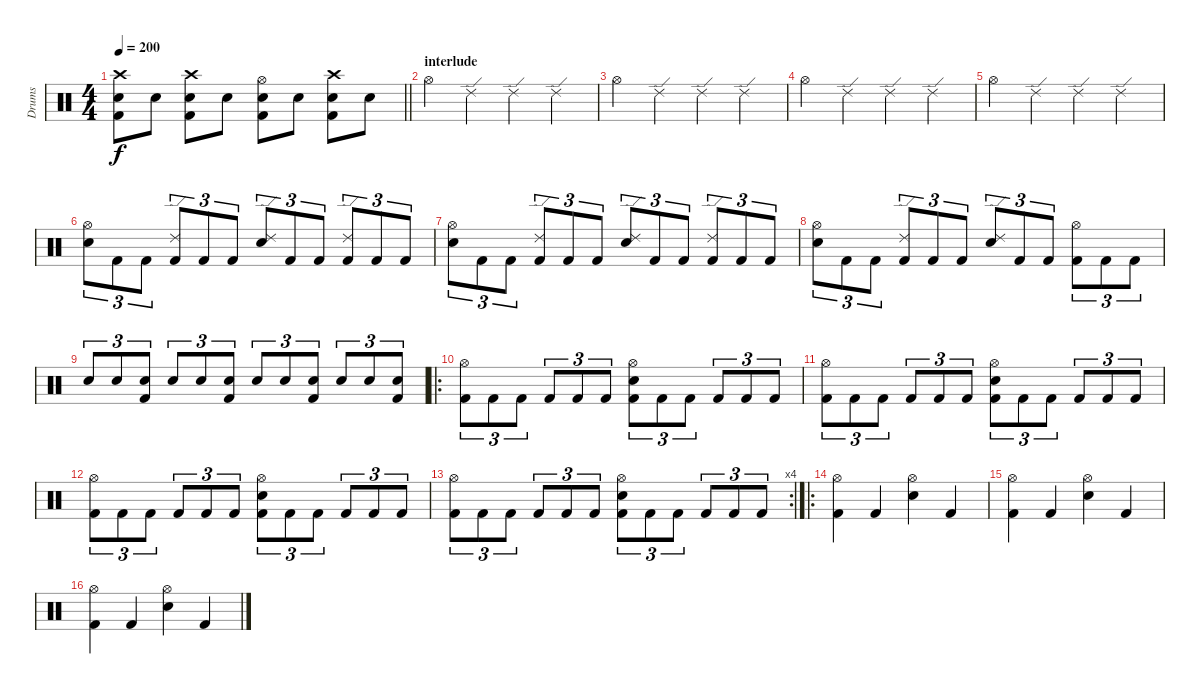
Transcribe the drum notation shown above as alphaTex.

\track ("Drums" "Drums") {instrument percussion}
\staff {score}
\articulation defaults
\ts (4 4)
\tempo 200
\clef neutral
\barLineRight lightlight
\ks c
("Crash high (hit)" "Electric Snare (hit)" "Kick (hit) 2").8{dy f} "Electric Snare (hit)".8 ("Crash high (hit)" "Electric Snare (hit)" "Kick (hit) 2").8 "Electric Snare (hit)".8 ("Hi-Hat (open)" "Electric Snare (hit)" "Kick (hit) 2").8 "Electric Snare (hit)".8 ("Crash high (hit)" "Electric Snare (hit)" "Kick (hit) 2").8 "Electric Snare (hit)".8 |
\section ("" "interlude")
"Hi-Hat (open)".4 "Ride (edge) 2".4 "Ride (edge) 2".4 "Ride (edge) 2".4 |
"Hi-Hat (open)".4 "Ride (edge) 2".4 "Ride (edge) 2".4 "Ride (edge) 2".4 |
"Hi-Hat (open)".4 "Ride (edge) 2".4 "Ride (edge) 2".4 "Ride (edge) 2".4 |
"Hi-Hat (open)".4 "Ride (edge) 2".4 "Ride (edge) 2".4 "Ride (edge) 2".4 |
("Hi-Hat (open)" "Electric Snare (hit)").8{tu (3 2)} "Kick (hit) 2".8{tu (3 2)} "Kick (hit) 2".8{tu (3 2)} ("Ride (edge) 2" "Kick (hit) 2").8{tu (3 2)} "Kick (hit) 2".8{tu (3 2)} "Kick (hit) 2".8{tu (3 2)} ("Ride (edge) 2" "Electric Snare (hit)").8{tu (3 2)} "Kick (hit) 2".8{tu (3 2)} "Kick (hit) 2".8{tu (3 2)} ("Ride (edge) 2" "Kick (hit) 2").8{tu (3 2)} "Kick (hit) 2".8{tu (3 2)} "Kick (hit) 2".8{tu (3 2)} |
("Hi-Hat (open)" "Electric Snare (hit)").8{tu (3 2)} "Kick (hit) 2".8{tu (3 2)} "Kick (hit) 2".8{tu (3 2)} ("Ride (edge) 2" "Kick (hit) 2").8{tu (3 2)} "Kick (hit) 2".8{tu (3 2)} "Kick (hit) 2".8{tu (3 2)} ("Ride (edge) 2" "Electric Snare (hit)").8{tu (3 2)} "Kick (hit) 2".8{tu (3 2)} "Kick (hit) 2".8{tu (3 2)} ("Ride (edge) 2" "Kick (hit) 2").8{tu (3 2)} "Kick (hit) 2".8{tu (3 2)} "Kick (hit) 2".8{tu (3 2)} |
("Hi-Hat (open)" "Electric Snare (hit)").8{tu (3 2)} "Kick (hit) 2".8{tu (3 2)} "Kick (hit) 2".8{tu (3 2)} ("Ride (edge) 2" "Kick (hit) 2").8{tu (3 2)} "Kick (hit) 2".8{tu (3 2)} "Kick (hit) 2".8{tu (3 2)} ("Ride (edge) 2" "Electric Snare (hit)").8{tu (3 2)} "Kick (hit) 2".8{tu (3 2)} "Kick (hit) 2".8{tu (3 2)} ("Hi-Hat (open)" "Kick (hit) 2").8{tu (3 2)} "Kick (hit) 2".8{tu (3 2)} "Kick (hit) 2".8{tu (3 2)} |
"Electric Snare (hit)".8{tu (3 2)} "Electric Snare (hit)".8{tu (3 2)} ("Electric Snare (hit)" "Kick (hit) 2").8{tu (3 2)} "Electric Snare (hit)".8{tu (3 2)} "Electric Snare (hit)".8{tu (3 2)} ("Electric Snare (hit)" "Kick (hit) 2").8{tu (3 2)} "Electric Snare (hit)".8{tu (3 2)} "Electric Snare (hit)".8{tu (3 2)} ("Electric Snare (hit)" "Kick (hit) 2").8{tu (3 2)} "Electric Snare (hit)".8{tu (3 2)} "Electric Snare (hit)".8{tu (3 2)} ("Electric Snare (hit)" "Kick (hit) 2").8{tu (3 2)} |
\ro
("Hi-Hat (open)" "Kick (hit) 2").8{tu (3 2)} "Kick (hit) 2".8{tu (3 2)} "Kick (hit) 2".8{tu (3 2)} "Kick (hit) 2".8{tu (3 2)} "Kick (hit) 2".8{tu (3 2)} "Kick (hit) 2".8{tu (3 2)} ("Hi-Hat (open)" "Electric Snare (hit)" "Kick (hit) 2").8{tu (3 2)} "Kick (hit) 2".8{tu (3 2)} "Kick (hit) 2".8{tu (3 2)} "Kick (hit) 2".8{tu (3 2)} "Kick (hit) 2".8{tu (3 2)} "Kick (hit) 2".8{tu (3 2)} |
("Hi-Hat (open)" "Kick (hit) 2").8{tu (3 2)} "Kick (hit) 2".8{tu (3 2)} "Kick (hit) 2".8{tu (3 2)} "Kick (hit) 2".8{tu (3 2)} "Kick (hit) 2".8{tu (3 2)} "Kick (hit) 2".8{tu (3 2)} ("Hi-Hat (open)" "Electric Snare (hit)" "Kick (hit) 2").8{tu (3 2)} "Kick (hit) 2".8{tu (3 2)} "Kick (hit) 2".8{tu (3 2)} "Kick (hit) 2".8{tu (3 2)} "Kick (hit) 2".8{tu (3 2)} "Kick (hit) 2".8{tu (3 2)} |
("Hi-Hat (open)" "Kick (hit) 2").8{tu (3 2)} "Kick (hit) 2".8{tu (3 2)} "Kick (hit) 2".8{tu (3 2)} "Kick (hit) 2".8{tu (3 2)} "Kick (hit) 2".8{tu (3 2)} "Kick (hit) 2".8{tu (3 2)} ("Hi-Hat (open)" "Electric Snare (hit)" "Kick (hit) 2").8{tu (3 2)} "Kick (hit) 2".8{tu (3 2)} "Kick (hit) 2".8{tu (3 2)} "Kick (hit) 2".8{tu (3 2)} "Kick (hit) 2".8{tu (3 2)} "Kick (hit) 2".8{tu (3 2)} |
\rc 4
("Hi-Hat (open)" "Kick (hit) 2").8{tu (3 2)} "Kick (hit) 2".8{tu (3 2)} "Kick (hit) 2".8{tu (3 2)} "Kick (hit) 2".8{tu (3 2)} "Kick (hit) 2".8{tu (3 2)} "Kick (hit) 2".8{tu (3 2)} ("Hi-Hat (open)" "Electric Snare (hit)" "Kick (hit) 2").8{tu (3 2)} "Kick (hit) 2".8{tu (3 2)} "Kick (hit) 2".8{tu (3 2)} "Kick (hit) 2".8{tu (3 2)} "Kick (hit) 2".8{tu (3 2)} "Kick (hit) 2".8{tu (3 2)} |
\ro
("Hi-Hat (open)" "Kick (hit) 2").4 "Kick (hit) 2".4 ("Hi-Hat (open)" "Electric Snare (hit)").4 "Kick (hit) 2".4 |
("Hi-Hat (open)" "Kick (hit) 2").4 "Kick (hit) 2".4 ("Hi-Hat (open)" "Electric Snare (hit)").4 "Kick (hit) 2".4 |
("Hi-Hat (open)" "Kick (hit) 2").4 "Kick (hit) 2".4 ("Hi-Hat (open)" "Electric Snare (hit)").4 "Kick (hit) 2".4
